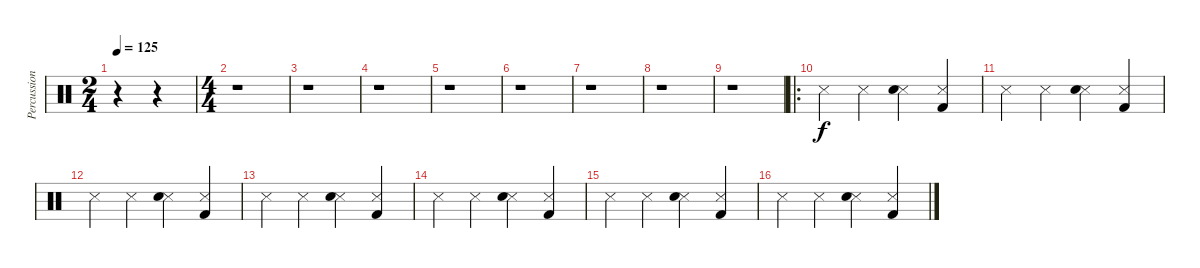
\track ("Percussion" "Percussion") {instrument percussion}
\staff {score}
\articulation defaults
\ts (2 4)
\tempo 125
\clef neutral
\ks c
r.4{dy f} r.4 |
\ts (4 4)
r.1 |
r.1 |
r.1 |
r.1 |
r.1 |
r.1 |
r.1 |
r.1 |
\ro "Snare (side stick) 3".4 "Snare (side stick) 3".4
("Snare (side stick) 3" "Electric Snare (hit)").4 ("Snare (side stick) 3" "Kick (hit) 2").4 |
"Snare (side stick) 3".4 "Snare (side stick) 3".4 ("Snare (side stick) 3" "Electric Snare (hit)").4 ("Snare (side stick) 3" "Kick (hit) 2").4 |
"Snare (side stick) 3".4 "Snare (side stick) 3".4 ("Snare (side stick) 3" "Electric Snare (hit)").4 ("Snare (side stick) 3" "Kick (hit) 2").4 |
"Snare (side stick) 3".4 "Snare (side stick) 3".4 ("Snare (side stick) 3" "Electric Snare (hit)").4 ("Snare (side stick) 3" "Kick (hit) 2").4 |
"Snare (side stick) 3".4 "Snare (side stick) 3".4 ("Snare (side stick) 3" "Electric Snare (hit)").4 ("Snare (side stick) 3" "Kick (hit) 2").4 |
"Snare (side stick) 3".4 "Snare (side stick) 3".4 ("Snare (side stick) 3" "Electric Snare (hit)").4 ("Snare (side stick) 3" "Kick (hit) 2").4 |
"Snare (side stick) 3".4 "Snare (side stick) 3".4 ("Snare (side stick) 3" "Electric Snare (hit)").4 ("Snare (side stick) 3" "Kick (hit) 2").4
